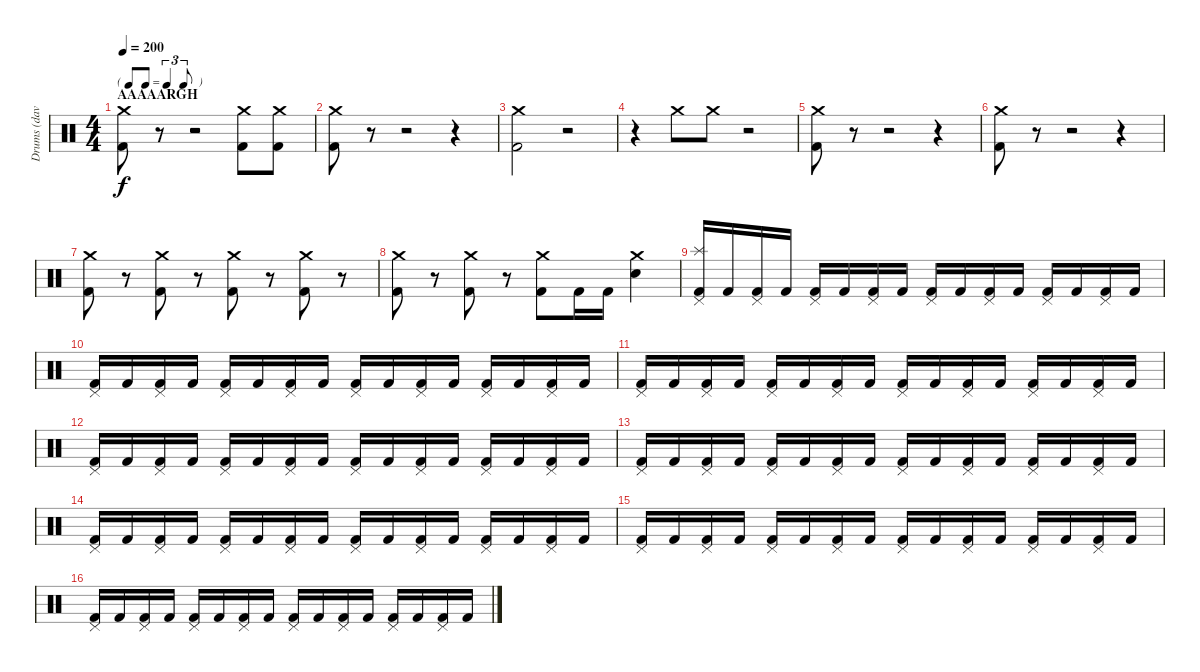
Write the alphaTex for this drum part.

\track ("Drums (dave)" "Drums (dav") {instrument percussion}
\staff {score}
\articulation defaults
\ts (4 4)
\tf triplet8th
\section ("" "AAAAARGH")
\tempo 200
\clef neutral
\ks c
("Crash medium (hit)" "Kick (hit) 2").8{dy f} r.8 r.2 ("Crash medium (hit)" "Kick (hit) 2").8 ("Crash medium (hit)" "Kick (hit) 2").8 |
("Crash medium (hit)" "Kick (hit) 2").8 r.8 r.2 r.4 |
("Crash medium (hit)" "Kick (hit) 2").2 r.2 |
r.4 "Crash medium (hit)".8 "Crash medium (hit)".8 r.2 |
("Crash medium (hit)" "Kick (hit) 2").8 r.8 r.2 r.4 |
("Crash medium (hit)" "Kick (hit) 2").8 r.8 r.2 r.4 |
("Crash medium (hit)" "Kick (hit) 2").8 r.8 ("Crash medium (hit)" "Kick (hit) 2").8 r.8 ("Crash medium (hit)" "Kick (hit) 2").8 r.8 ("Crash medium (hit)" "Kick (hit) 2").8 r.8 |
("Crash medium (hit)" "Kick (hit) 2").8 r.8 ("Crash medium (hit)" "Kick (hit) 2").8 r.8 ("Crash medium (hit)" "Kick (hit) 2").8 "Kick (hit) 2".16 "Kick (hit) 2".16 ("Crash medium (hit)" "Snare (hit) 2").4 |
("Splash (hit)" "Pedal Hi-Hat (hit)" "Kick (hit) 2").16 "Kick (hit) 2".16 ("Pedal Hi-Hat (hit)" "Kick (hit) 2").16 "Kick (hit) 2".16 ("Pedal Hi-Hat (hit)" "Kick (hit) 2").16 "Kick (hit) 2".16 ("Pedal Hi-Hat (hit)" "Kick (hit) 2").16 "Kick (hit) 2".16 ("Pedal Hi-Hat (hit)" "Kick (hit) 2").16 "Kick (hit) 2".16 ("Pedal Hi-Hat (hit)" "Kick (hit) 2").16 "Kick (hit) 2".16 ("Pedal Hi-Hat (hit)" "Kick (hit) 2").16 "Kick (hit) 2".16 ("Pedal Hi-Hat (hit)" "Kick (hit) 2").16 "Kick (hit) 2".16 |
("Pedal Hi-Hat (hit)" "Kick (hit) 2").16 "Kick (hit) 2".16 ("Pedal Hi-Hat (hit)" "Kick (hit) 2").16 "Kick (hit) 2".16 ("Pedal Hi-Hat (hit)" "Kick (hit) 2").16 "Kick (hit) 2".16 ("Pedal Hi-Hat (hit)" "Kick (hit) 2").16 "Kick (hit) 2".16 ("Pedal Hi-Hat (hit)" "Kick (hit) 2").16 "Kick (hit) 2".16 ("Pedal Hi-Hat (hit)" "Kick (hit) 2").16 "Kick (hit) 2".16 ("Pedal Hi-Hat (hit)" "Kick (hit) 2").16 "Kick (hit) 2".16 ("Pedal Hi-Hat (hit)" "Kick (hit) 2").16 "Kick (hit) 2".16 |
("Pedal Hi-Hat (hit)" "Kick (hit) 2").16 "Kick (hit) 2".16 ("Pedal Hi-Hat (hit)" "Kick (hit) 2").16 "Kick (hit) 2".16 ("Pedal Hi-Hat (hit)" "Kick (hit) 2").16 "Kick (hit) 2".16 ("Pedal Hi-Hat (hit)" "Kick (hit) 2").16 "Kick (hit) 2".16 ("Pedal Hi-Hat (hit)" "Kick (hit) 2").16 "Kick (hit) 2".16 ("Pedal Hi-Hat (hit)" "Kick (hit) 2").16 "Kick (hit) 2".16 ("Pedal Hi-Hat (hit)" "Kick (hit) 2").16 "Kick (hit) 2".16 ("Pedal Hi-Hat (hit)" "Kick (hit) 2").16 "Kick (hit) 2".16 |
("Pedal Hi-Hat (hit)" "Kick (hit) 2").16 "Kick (hit) 2".16 ("Pedal Hi-Hat (hit)" "Kick (hit) 2").16 "Kick (hit) 2".16 ("Pedal Hi-Hat (hit)" "Kick (hit) 2").16 "Kick (hit) 2".16 ("Pedal Hi-Hat (hit)" "Kick (hit) 2").16 "Kick (hit) 2".16 ("Pedal Hi-Hat (hit)" "Kick (hit) 2").16 "Kick (hit) 2".16 ("Pedal Hi-Hat (hit)" "Kick (hit) 2").16 "Kick (hit) 2".16 ("Pedal Hi-Hat (hit)" "Kick (hit) 2").16 "Kick (hit) 2".16 ("Pedal Hi-Hat (hit)" "Kick (hit) 2").16 "Kick (hit) 2".16 |
("Pedal Hi-Hat (hit)" "Kick (hit) 2").16 "Kick (hit) 2".16 ("Pedal Hi-Hat (hit)" "Kick (hit) 2").16 "Kick (hit) 2".16 ("Pedal Hi-Hat (hit)" "Kick (hit) 2").16 "Kick (hit) 2".16 ("Pedal Hi-Hat (hit)" "Kick (hit) 2").16 "Kick (hit) 2".16 ("Pedal Hi-Hat (hit)" "Kick (hit) 2").16 "Kick (hit) 2".16 ("Pedal Hi-Hat (hit)" "Kick (hit) 2").16 "Kick (hit) 2".16 ("Pedal Hi-Hat (hit)" "Kick (hit) 2").16 "Kick (hit) 2".16 ("Pedal Hi-Hat (hit)" "Kick (hit) 2").16 "Kick (hit) 2".16 |
("Pedal Hi-Hat (hit)" "Kick (hit) 2").16 "Kick (hit) 2".16 ("Pedal Hi-Hat (hit)" "Kick (hit) 2").16 "Kick (hit) 2".16 ("Pedal Hi-Hat (hit)" "Kick (hit) 2").16 "Kick (hit) 2".16 ("Pedal Hi-Hat (hit)" "Kick (hit) 2").16 "Kick (hit) 2".16 ("Pedal Hi-Hat (hit)" "Kick (hit) 2").16 "Kick (hit) 2".16 ("Pedal Hi-Hat (hit)" "Kick (hit) 2").16 "Kick (hit) 2".16 ("Pedal Hi-Hat (hit)" "Kick (hit) 2").16 "Kick (hit) 2".16 ("Pedal Hi-Hat (hit)" "Kick (hit) 2").16 "Kick (hit) 2".16 |
("Pedal Hi-Hat (hit)" "Kick (hit) 2").16 "Kick (hit) 2".16 ("Pedal Hi-Hat (hit)" "Kick (hit) 2").16 "Kick (hit) 2".16 ("Pedal Hi-Hat (hit)" "Kick (hit) 2").16 "Kick (hit) 2".16 ("Pedal Hi-Hat (hit)" "Kick (hit) 2").16 "Kick (hit) 2".16 ("Pedal Hi-Hat (hit)" "Kick (hit) 2").16 "Kick (hit) 2".16 ("Pedal Hi-Hat (hit)" "Kick (hit) 2").16 "Kick (hit) 2".16 ("Pedal Hi-Hat (hit)" "Kick (hit) 2").16 "Kick (hit) 2".16 ("Pedal Hi-Hat (hit)" "Kick (hit) 2").16 "Kick (hit) 2".16 |
("Pedal Hi-Hat (hit)" "Kick (hit) 2").16 "Kick (hit) 2".16 ("Pedal Hi-Hat (hit)" "Kick (hit) 2").16 "Kick (hit) 2".16 ("Pedal Hi-Hat (hit)" "Kick (hit) 2").16 "Kick (hit) 2".16 ("Pedal Hi-Hat (hit)" "Kick (hit) 2").16 "Kick (hit) 2".16 ("Pedal Hi-Hat (hit)" "Kick (hit) 2").16 "Kick (hit) 2".16 ("Pedal Hi-Hat (hit)" "Kick (hit) 2").16 "Kick (hit) 2".16 ("Pedal Hi-Hat (hit)" "Kick (hit) 2").16 "Kick (hit) 2".16 ("Pedal Hi-Hat (hit)" "Kick (hit) 2").16 "Kick (hit) 2".16
